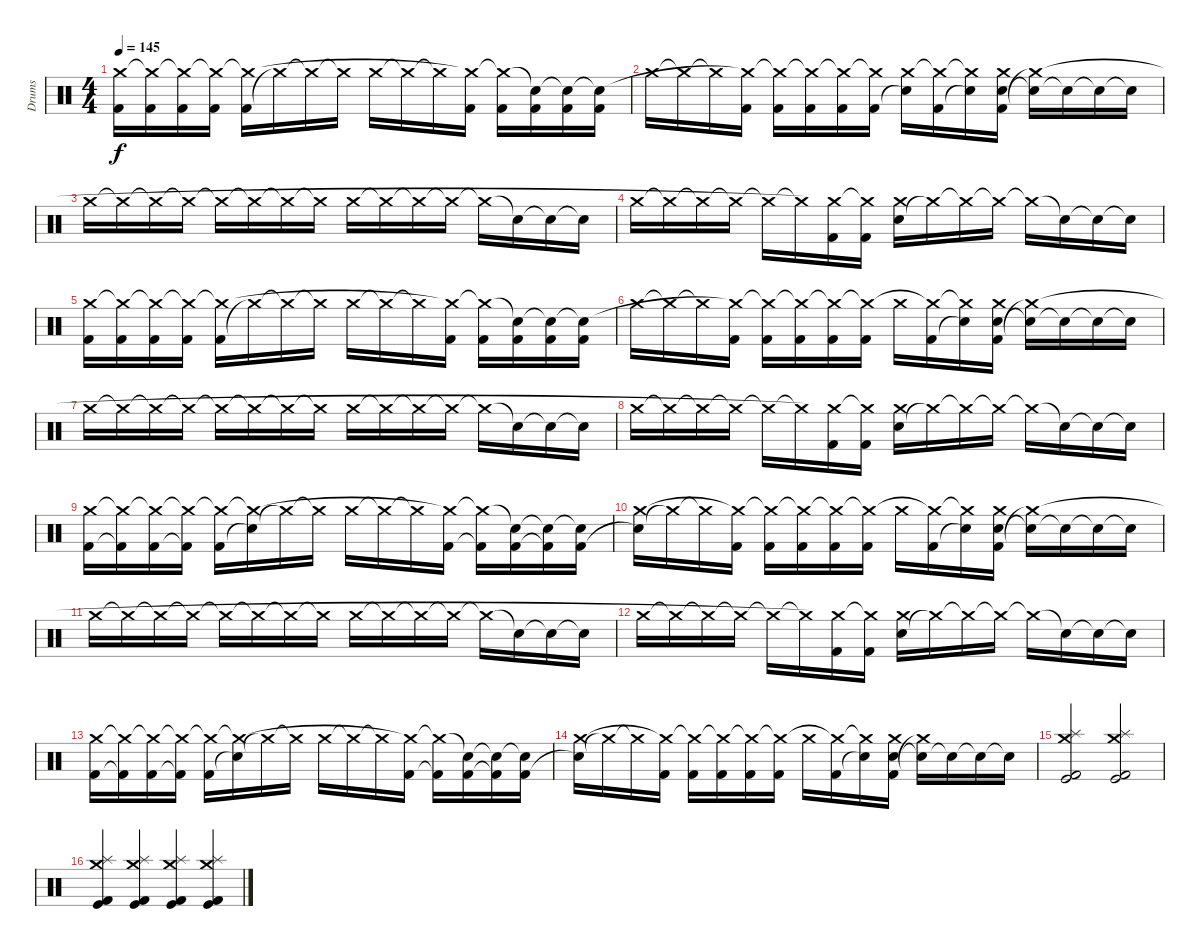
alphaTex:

\track ("Drums" "Drums") {instrument percussion}
\staff {score}
\articulation defaults
\ts (4 4)
\tempo 145
\clef neutral
\ks c
("Kick (hit) 2" "Crash medium (hit)").16{dy f} ("Kick (hit) 2" "Crash medium (hit)"{t}).16 ("Kick (hit) 2" "Crash medium (hit)"{t}).16 ("Kick (hit) 2" "Crash medium (hit)"{t}).16 ("Kick (hit) 2" "Crash medium (hit)"{t}).16 "Crash medium (hit)"{t}.16 "Crash medium (hit)"{t}.16 "Crash medium (hit)"{t}.16 "Crash medium (hit)".16 "Crash medium (hit)"{t}.16 "Crash medium (hit)"{t}.16 ("Kick (hit) 2" "Crash medium (hit)"{t}).16 ("Kick (hit) 2" "Crash medium (hit)"{t}).16 ("Kick (hit) 2" "Snare (hit)"{t}).16 ("Kick (hit) 2" "Snare (hit)"{t}).16 ("Kick (hit) 2" "Snare (hit)"{t}).16 |
"Crash medium (hit)".16 "Crash medium (hit)"{t}.16 "Crash medium (hit)"{t}.16 ("Kick (hit) 2" "Crash medium (hit)"{t}).16 ("Kick (hit) 2" "Crash medium (hit)"{t}).16 ("Kick (hit) 2" "Crash medium (hit)"{t}).16 ("Kick (hit) 2" "Crash medium (hit)"{t}).16 ("Kick (hit) 2" "Crash medium (hit)"{t}).16 ("Snare (hit)"{t} "Crash medium (hit)").16 ("Kick (hit) 2" "Crash medium (hit)"{t}).16 ("Snare (hit)"{t} "Crash medium (hit)"{t}).16 ("Snare (hit) 2" "Kick (hit) 2" "Crash medium (hit)"{t}).16 ("Snare (hit)"{t} "Crash medium (hit)"{t}).16 "Snare (hit)"{t}.16 "Snare (hit)"{t}.16 "Snare (hit)"{t}.16 |
"Crash medium (hit)".16 "Crash medium (hit)"{t}.16 "Crash medium (hit)"{t}.16 "Crash medium (hit)"{t}.16 "Crash medium (hit)"{t}.16 "Crash medium (hit)"{t}.16 "Crash medium (hit)"{t}.16 "Crash medium (hit)"{t}.16 "Crash medium (hit)".16 "Crash medium (hit)"{t}.16 "Crash medium (hit)"{t}.16 "Crash medium (hit)"{t}.16 "Crash medium (hit)"{t}.16 "Snare (hit)"{t}.16 "Snare (hit)"{t}.16 "Snare (hit)"{t}.16 |
"Crash medium (hit)".16 "Crash medium (hit)"{t}.16 "Crash medium (hit)"{t}.16 "Crash medium (hit)"{t}.16 "Crash medium (hit)"{t}.16 "Crash medium (hit)"{t}.16 ("Kick (hit) 2" "Crash medium (hit)"{t}).16 ("Kick (hit) 2" "Crash medium (hit)"{t}).16 ("Snare (hit) 2" "Crash medium (hit)").16 "Crash medium (hit)"{t}.16 "Crash medium (hit)"{t}.16 "Crash medium (hit)"{t}.16 "Crash medium (hit)"{t}.16 "Snare (hit)"{t}.16 "Snare (hit)"{t}.16 "Snare (hit)"{t}.16 |
("Kick (hit) 2" "Crash medium (hit)").16 ("Kick (hit) 2" "Crash medium (hit)"{t}).16 ("Kick (hit) 2" "Crash medium (hit)"{t}).16 ("Kick (hit) 2" "Crash medium (hit)"{t}).16 ("Kick (hit) 2" "Crash medium (hit)"{t}).16 "Crash medium (hit)"{t}.16 "Crash medium (hit)"{t}.16 "Crash medium (hit)"{t}.16 "Crash medium (hit)".16 "Crash medium (hit)"{t}.16 "Crash medium (hit)"{t}.16 ("Kick (hit) 2" "Crash medium (hit)"{t}).16 ("Kick (hit) 2" "Crash medium (hit)"{t}).16 ("Kick (hit) 2" "Snare (hit)"{t}).16 ("Kick (hit) 2" "Snare (hit)"{t}).16 ("Kick (hit) 2" "Snare (hit)"{t}).16 |
"Crash medium (hit)".16 "Crash medium (hit)"{t}.16 "Crash medium (hit)"{t}.16 ("Kick (hit) 2" "Crash medium (hit)"{t}).16 ("Kick (hit) 2" "Crash medium (hit)"{t}).16 ("Kick (hit) 2" "Crash medium (hit)"{t}).16 ("Kick (hit) 2" "Crash medium (hit)"{t}).16 ("Kick (hit) 2" "Crash medium (hit)"{t}).16 "Crash medium (hit)".16 ("Kick (hit) 2" "Crash medium (hit)"{t}).16 ("Snare (hit)"{t} "Crash medium (hit)"{t}).16 ("Snare (hit) 2" "Kick (hit) 2" "Crash medium (hit)").16 ("Snare (hit)"{t} "Crash medium (hit)"{t}).16 "Snare (hit)"{t}.16 "Snare (hit)"{t}.16 "Snare (hit)"{t}.16 |
"Crash medium (hit)".16 "Crash medium (hit)"{t}.16 "Crash medium (hit)"{t}.16 "Crash medium (hit)"{t}.16 "Crash medium (hit)"{t}.16 "Crash medium (hit)"{t}.16 "Crash medium (hit)"{t}.16 "Crash medium (hit)"{t}.16 "Crash medium (hit)".16 "Crash medium (hit)"{t}.16 "Crash medium (hit)"{t}.16 "Crash medium (hit)"{t}.16 "Crash medium (hit)"{t}.16 "Snare (hit)"{t}.16 "Snare (hit)"{t}.16 "Snare (hit)"{t}.16 |
"Crash medium (hit)".16 "Crash medium (hit)"{t}.16 "Crash medium (hit)"{t}.16 "Crash medium (hit)"{t}.16 "Crash medium (hit)"{t}.16 "Crash medium (hit)"{t}.16 ("Kick (hit) 2" "Crash medium (hit)"{t}).16 ("Kick (hit) 2" "Crash medium (hit)"{t}).16 ("Snare (hit) 2" "Crash medium (hit)").16 "Crash medium (hit)"{t}.16 "Crash medium (hit)"{t}.16 "Crash medium (hit)"{t}.16 "Crash medium (hit)"{t}.16 "Snare (hit)"{t}.16 "Snare (hit)"{t}.16 "Snare (hit)"{t}.16 |
("Kick (hit) 2" "Crash medium (hit)").16 ("Kick (hit) 2"{t} "Crash medium (hit)"{t}).16 ("Kick (hit) 2" "Crash medium (hit)"{t}).16 ("Kick (hit) 2"{t} "Crash medium (hit)"{t}).16 ("Kick (hit) 2" "Crash medium (hit)"{t}).16 ("Snare (hit)"{t} "Crash medium (hit)"{t}).16 "Crash medium (hit)"{t}.16 "Crash medium (hit)"{t}.16 "Crash medium (hit)".16 "Crash medium (hit)"{t}.16 "Crash medium (hit)"{t}.16 ("Kick (hit) 2" "Crash medium (hit)"{t}).16 ("Kick (hit) 2"{t} "Crash medium (hit)"{t}).16 ("Kick (hit) 2" "Snare (hit)"{t}).16 ("Kick (hit) 2"{t} "Snare (hit)"{t}).16 ("Kick (hit) 2" "Snare (hit)"{t}).16 |
("Snare (hit)"{t} "Crash medium (hit)").16 "Crash medium (hit)"{t}.16 "Crash medium (hit)"{t}.16 ("Kick (hit) 2" "Crash medium (hit)"{t}).16 ("Kick (hit) 2" "Crash medium (hit)"{t}).16 ("Kick (hit) 2" "Crash medium (hit)"{t}).16 ("Kick (hit) 2" "Crash medium (hit)"{t}).16 ("Kick (hit) 2" "Crash medium (hit)"{t}).16 "Crash medium (hit)".16 ("Kick (hit) 2" "Crash medium (hit)"{t}).16 ("Snare (hit)"{t} "Crash medium (hit)"{t}).16 ("Snare (hit) 2" "Kick (hit) 2" "Crash medium (hit)").16 ("Snare (hit)"{t} "Crash medium (hit)"{t}).16 "Snare (hit)"{t}.16 "Snare (hit)"{t}.16 "Snare (hit)"{t}.16 |
"Crash medium (hit)".16 "Crash medium (hit)"{t}.16 "Crash medium (hit)"{t}.16 "Crash medium (hit)"{t}.16 "Crash medium (hit)"{t}.16 "Crash medium (hit)"{t}.16 "Crash medium (hit)"{t}.16 "Crash medium (hit)"{t}.16 "Crash medium (hit)".16 "Crash medium (hit)"{t}.16 "Crash medium (hit)"{t}.16 "Crash medium (hit)"{t}.16 "Crash medium (hit)"{t}.16 "Snare (hit)"{t}.16 "Snare (hit)"{t}.16 "Snare (hit)"{t}.16 |
"Crash medium (hit)".16 "Crash medium (hit)"{t}.16 "Crash medium (hit)"{t}.16 "Crash medium (hit)"{t}.16 "Crash medium (hit)"{t}.16 "Crash medium (hit)"{t}.16 ("Kick (hit) 2" "Crash medium (hit)"{t}).16 ("Kick (hit) 2" "Crash medium (hit)"{t}).16 ("Snare (hit) 2" "Crash medium (hit)").16 "Crash medium (hit)"{t}.16 "Crash medium (hit)"{t}.16 "Crash medium (hit)"{t}.16 "Crash medium (hit)"{t}.16 "Snare (hit)"{t}.16 "Snare (hit)"{t}.16 "Snare (hit)"{t}.16 |
("Kick (hit) 2" "Crash medium (hit)").16 ("Kick (hit) 2"{t} "Crash medium (hit)"{t}).16 ("Kick (hit) 2" "Crash medium (hit)"{t}).16 ("Kick (hit) 2"{t} "Crash medium (hit)"{t}).16 ("Kick (hit) 2" "Crash medium (hit)"{t}).16 ("Snare (hit)"{t} "Crash medium (hit)"{t}).16 "Crash medium (hit)"{t}.16 "Crash medium (hit)"{t}.16 "Crash medium (hit)".16 "Crash medium (hit)"{t}.16 "Crash medium (hit)"{t}.16 ("Kick (hit) 2" "Crash medium (hit)"{t}).16 ("Kick (hit) 2"{t} "Crash medium (hit)"{t}).16 ("Kick (hit) 2" "Snare (hit)"{t}).16 ("Kick (hit) 2"{t} "Snare (hit)"{t}).16 ("Kick (hit) 2" "Snare (hit)"{t}).16 |
("Snare (hit)"{t} "Crash medium (hit)").16 "Crash medium (hit)"{t}.16 "Crash medium (hit)"{t}.16 ("Kick (hit) 2" "Crash medium (hit)"{t}).16 ("Kick (hit) 2" "Crash medium (hit)"{t}).16 ("Kick (hit) 2" "Crash medium (hit)"{t}).16 ("Kick (hit) 2" "Crash medium (hit)"{t}).16 ("Kick (hit) 2" "Crash medium (hit)"{t}).16 "Crash medium (hit)".16 ("Kick (hit) 2" "Crash medium (hit)"{t}).16 ("Snare (hit)"{t} "Crash medium (hit)"{t}).16 ("Snare (hit) 2" "Kick (hit) 2" "Crash medium (hit)").16 ("Snare (hit)"{t} "Crash medium (hit)"{t}).16 "Snare (hit)"{t}.16 "Snare (hit)"{t}.16 "Snare (hit)"{t}.16 |
("Splash (hit)" "Kick (hit)" "Crash medium (hit)" "Kick (hit) 2").2 ("Splash (hit)" "Kick (hit)" "Crash medium (hit)" "Kick (hit) 2").2 |
("Splash (hit)" "Kick (hit)" "Crash medium (hit)" "Kick (hit) 2").4 ("Splash (hit)" "Kick (hit)" "Crash medium (hit)" "Kick (hit) 2").4 ("Splash (hit)" "Kick (hit)" "Crash medium (hit)" "Kick (hit) 2").4 ("Splash (hit)" "Kick (hit)" "Crash medium (hit)" "Kick (hit) 2").4
